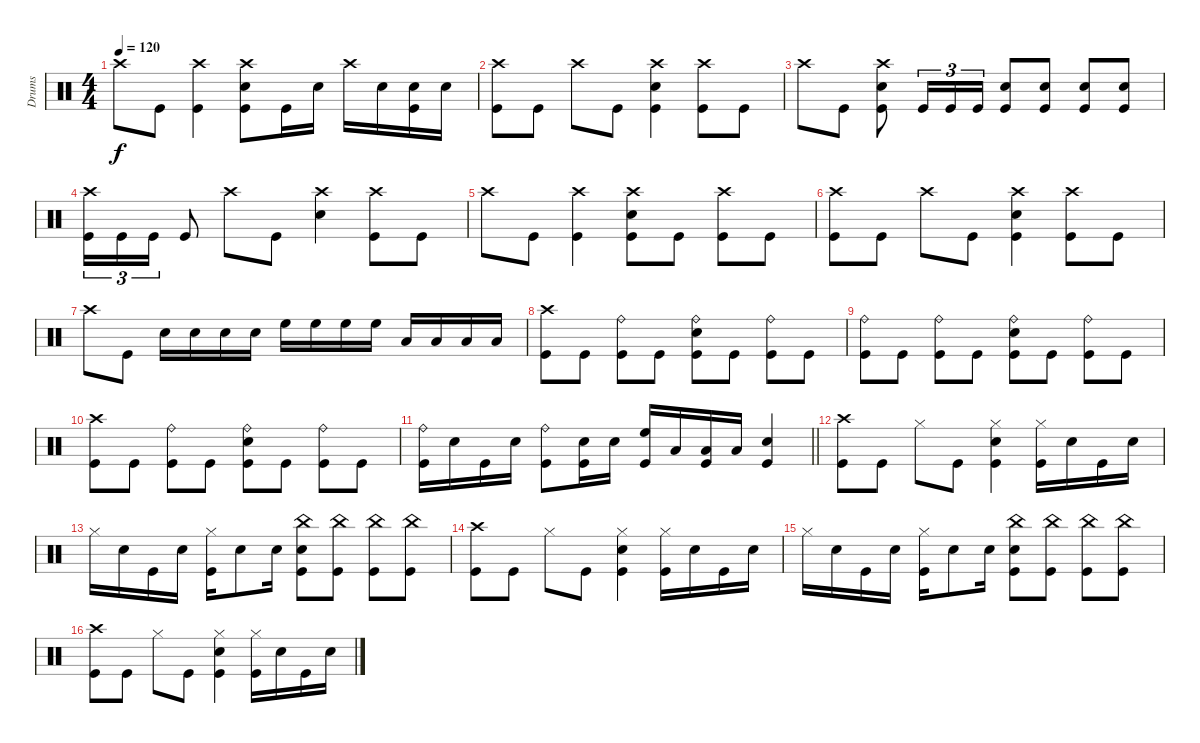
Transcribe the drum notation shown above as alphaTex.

\track ("Drums" "Drums") {instrument percussion}
\staff {score}
\articulation defaults
\ts (4 4)
\tempo 120
\clef neutral
\ks c "Crash high (hit)".8{dy f} "Kick (hit)".8
("Crash high (hit)" "Kick (hit)").4 ("Snare (hit) 2" "Crash high (hit)" "Kick (hit)").8 "Kick (hit)".16 "Snare (hit) 2".16 "Crash high (hit)".16 "Snare (hit) 2".16 ("Kick (hit)" "Snare (hit) 2").16 "Snare (hit) 2".16 |
("Crash high (hit)" "Kick (hit)").8 "Kick (hit)".8 "Crash high (hit)".8 "Kick (hit)".8 ("Snare (hit) 2" "Crash high (hit)" "Kick (hit)").4 ("Crash high (hit)" "Kick (hit)").8 "Kick (hit)".8 |
"Crash high (hit)".8 "Kick (hit)".8 ("Snare (hit) 2" "Crash high (hit)" "Kick (hit)").8 "Kick (hit)".16{tu (3 2)} "Kick (hit)".16{tu (3 2)} "Kick (hit)".16{tu (3 2)} ("Kick (hit)" "Snare (hit) 2").8 ("Kick (hit)" "Snare (hit) 2").8 ("Kick (hit)" "Snare (hit) 2").8 ("Kick (hit)" "Snare (hit) 2").8 |
("Kick (hit)" "Crash high (hit)").16{tu (3 2)} "Kick (hit)".16{tu (3 2)} "Kick (hit)".16{tu (3 2)} "Kick (hit)".8 "Crash high (hit)".8 "Kick (hit)".8 ("Snare (hit) 2" "Crash high (hit)").4 ("Kick (hit)" "Crash high (hit)").8 "Kick (hit)".8 |
"Crash high (hit)".8 "Kick (hit)".8 ("Kick (hit)" "Crash high (hit)").4 ("Kick (hit)" "Snare (hit) 2" "Crash high (hit)").8 "Kick (hit)".8 ("Crash high (hit)" "Kick (hit)").8 "Kick (hit)".8 |
("Crash high (hit)" "Kick (hit)").8 "Kick (hit)".8 "Crash high (hit)".8 "Kick (hit)".8 ("Snare (hit) 2" "Crash high (hit)" "Kick (hit)").4 ("Crash high (hit)" "Kick (hit)").8 "Kick (hit)".8 |
"Crash high (hit)".8 "Kick (hit)".8 "Snare (hit) 2".16 "Snare (hit) 2".16 "Snare (hit) 2".16 "Snare (hit) 2".16 "High Floor Tom (hit)".16 "High Floor Tom (hit)".16 "High Floor Tom (hit)".16 "High Floor Tom (hit)".16 "Low Tom (hit)".16 "Low Tom (hit)".16 "Low Tom (hit)".16 "Low Tom (hit)".16 |
("Kick (hit)" "Crash high (hit)").8 "Kick (hit)".8 ("Kick (hit)" "Ride (bell)").8 "Kick (hit)".8 ("Kick (hit)" "Snare (hit) 2" "Ride (bell)").8 "Kick (hit)".8 ("Kick (hit)" "Ride (bell)").8 "Kick (hit)".8 |
("Ride (bell)" "Kick (hit)").8 "Kick (hit)".8 ("Ride (bell)" "Kick (hit)").8 "Kick (hit)".8 ("Snare (hit) 2" "Ride (bell)" "Kick (hit)").8 "Kick (hit)".8 ("Ride (bell)" "Kick (hit)").8 "Kick (hit)".8 |
("Crash high (hit)" "Kick (hit)").8 "Kick (hit)".8 ("Ride (bell)" "Kick (hit)").8 "Kick (hit)".8 ("Snare (hit) 2" "Ride (bell)" "Kick (hit)").8 "Kick (hit)".8 ("Ride (bell)" "Kick (hit)").8 "Kick (hit)".8 |
\barLineRight lightlight
("Kick (hit)" "Ride (bell)").16 "Snare (hit) 2".16 "Kick (hit)".16 "Snare (hit) 2".16 ("Ride (bell)" "Kick (hit)").8 ("Snare (hit) 2" "Kick (hit)").16 "Snare (hit) 2".16 ("High Floor Tom (hit)" "Kick (hit)").16 "Low Tom (hit)".16 ("Low Floor Tom (hit)" "Kick (hit)").16 "Low Floor Tom (hit)".16 ("Snare (hit) 2" "Kick (hit)").4 |
("Kick (hit)" "Crash high (hit)").8{volume 6} "Kick (hit)".8 "Hi-Hat (closed)".8 "Kick (hit)".8 ("Kick (hit)" "Snare (hit) 2" "Hi-Hat (closed)").4 ("Kick (hit)" "Hi-Hat (closed)").16 "Snare (hit) 2".16 "Kick (hit)".16 "Snare (hit) 2".16 |
"Hi-Hat (closed)".16 "Snare (hit) 2".16 "Kick (hit)".16 "Snare (hit) 2".16 ("Kick (hit)" "Hi-Hat (closed)").16 "Snare (hit) 2".8 "Snare (hit) 2".16 ("Snare (hit) 2" "China (hit)" "Kick (hit)").8 ("China (hit)" "Kick (hit)").8 ("China (hit)" "Kick (hit)").8 ("China (hit)" "Kick (hit)").8 |
("Crash high (hit)" "Kick (hit)").8 "Kick (hit)".8 "Hi-Hat (closed)".8 "Kick (hit)".8 ("Snare (hit) 2" "Hi-Hat (closed)" "Kick (hit)").4 ("Hi-Hat (closed)" "Kick (hit)").16 "Snare (hit) 2".16 "Kick (hit)".16 "Snare (hit) 2".16 |
"Hi-Hat (closed)".16 "Snare (hit) 2".16 "Kick (hit)".16 "Snare (hit) 2".16 ("Hi-Hat (closed)" "Kick (hit)").16 "Snare (hit) 2".8 "Snare (hit) 2".16 ("Kick (hit)" "Snare (hit) 2" "China (hit)").8 ("Kick (hit)" "China (hit)").8 ("Kick (hit)" "China (hit)").8 ("Kick (hit)" "China (hit)").8 |
("Crash high (hit)" "Kick (hit)").8 "Kick (hit)".8 "Hi-Hat (closed)".8 "Kick (hit)".8 ("Snare (hit) 2" "Hi-Hat (closed)" "Kick (hit)").4 ("Hi-Hat (closed)" "Kick (hit)").16 "Snare (hit) 2".16 "Kick (hit)".16 "Snare (hit) 2".16
